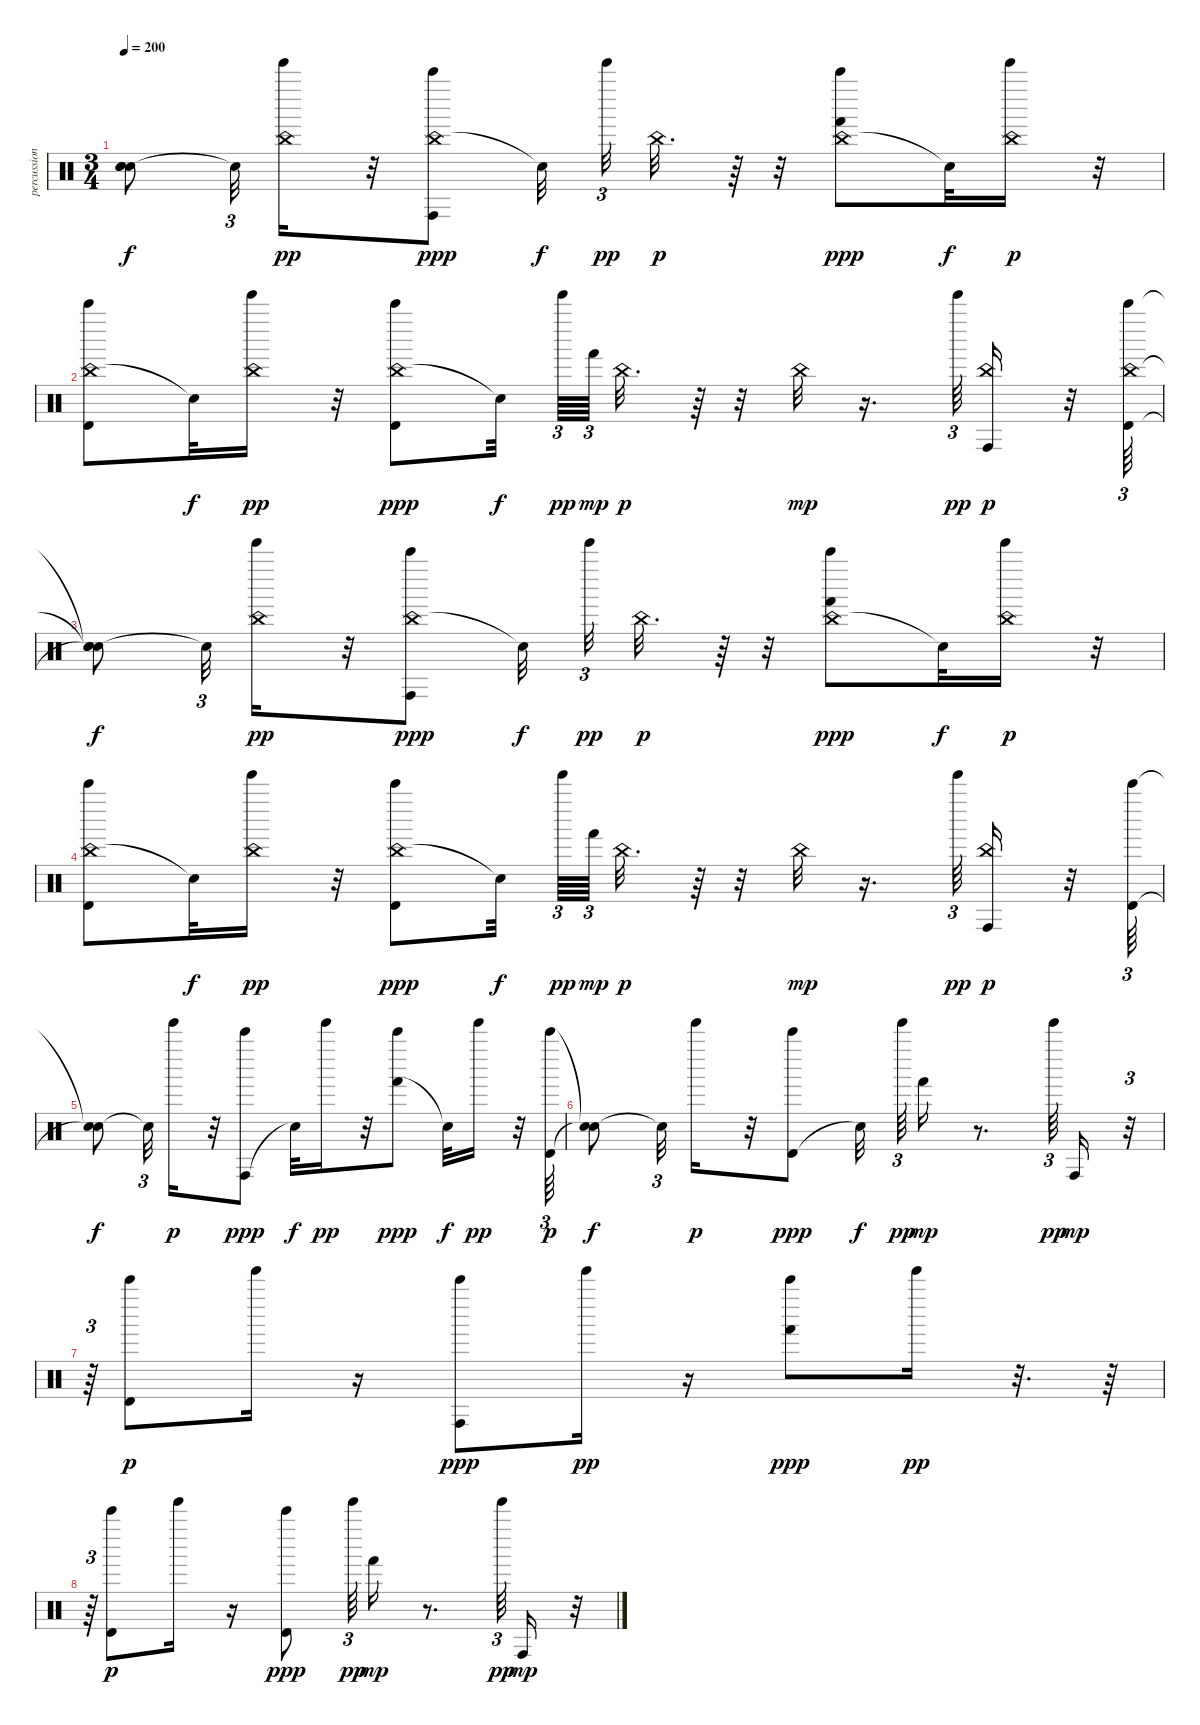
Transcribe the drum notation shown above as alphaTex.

\track ("percussion" "percussion") {instrument percussion}
\staff {score}
\articulation defaults
\ts (3 4)
\tempo 200
\clef neutral
\ks c
("Snare (hit)"{t} "Snare (hit)"{t} "Snare (hit)"{t}).8{dy f} "Snare (hit)"{t}.32{tu (3 2)} ("Tinkle Bell (hit)" "China (hit)").16{dy pp} r.32 ("China (hit)" "Conga high (hit)" "Bell Tree (hit)").8{dy ppp} "Snare (hit)"{t}.32{dy f} "Tinkle Bell (hit)".32{tu (3 2) dy pp} "China (hit)".32{d dy p} r.64 r.32 ("China (hit)" "Hand (hit)" "Bell Tree (hit)").8{dy ppp} "Snare (hit)"{t}.32{dy f} ("Tinkle Bell (hit)" "China (hit)").16{dy p} r.32 |
("China (hit)" "Timbale high (hit)" "Bell Tree (hit)").8 "Snare (hit)"{t}.32{dy f} ("Tinkle Bell (hit)" "China (hit)").16{dy pp} r.32 ("China (hit)" "Timbale high (hit)" "Bell Tree (hit)").8{dy ppp} "Snare (hit)"{t}.32{dy f} "Tinkle Bell (hit)".64{tu (3 2) dy pp} "Hand (hit)".64{tu (3 2) dy mp} "China (hit)".32{d dy p} r.64 r.32 "China (hit)".32{dy mp} r.16{d} "Tinkle Bell (hit)".64{tu (3 2) dy pp} ("Conga high (hit)" "China (hit)").16{dy p} r.32 ("China (hit)" "Timbale high (hit)" "Bell Tree (hit)").64{tu (3 2)} |
("Snare (hit)"{t} "Snare (hit)"{t} "Snare (hit)"{t}).8{dy f} "Snare (hit)"{t}.32{tu (3 2)} ("Tinkle Bell (hit)" "China (hit)").16{dy pp} r.32 ("China (hit)" "Conga high (hit)" "Bell Tree (hit)").8{dy ppp} "Snare (hit)"{t}.32{dy f} "Tinkle Bell (hit)".32{tu (3 2) dy pp} "China (hit)".32{d dy p} r.64 r.32 ("China (hit)" "Hand (hit)" "Bell Tree (hit)").8{dy ppp} "Snare (hit)"{t}.32{dy f} ("Tinkle Bell (hit)" "China (hit)").16{dy p} r.32 |
("China (hit)" "Timbale high (hit)" "Bell Tree (hit)").8 "Snare (hit)"{t}.32{dy f} ("Tinkle Bell (hit)" "China (hit)").16{dy pp} r.32 ("China (hit)" "Timbale high (hit)" "Bell Tree (hit)").8{dy ppp} "Snare (hit)"{t}.32{dy f} "Tinkle Bell (hit)".64{tu (3 2) dy pp} "Hand (hit)".64{tu (3 2) dy mp} "China (hit)".32{d dy p} r.64 r.32 "China (hit)".32{dy mp} r.16{d} "Tinkle Bell (hit)".64{tu (3 2) dy pp} ("Conga high (hit)" "China (hit)").16{dy p} r.32 ("Timbale high (hit)" "Bell Tree (hit)").64{tu (3 2)} |
("Snare (hit)"{t} "Snare (hit)"{t}).8{dy f} "Snare (hit)"{t}.32{tu (3 2)} "Tinkle Bell (hit)".16{dy p} r.32 ("Conga high (hit)" "Bell Tree (hit)").8{dy ppp} "Snare (hit)"{t}.32{dy f} "Tinkle Bell (hit)".16{dy pp} r.32 ("Hand (hit)" "Bell Tree (hit)").8{dy ppp} "Snare (hit)"{t}.32{dy f} "Tinkle Bell (hit)".16{dy pp} r.32 ("Timbale high (hit)" "Bell Tree (hit)").64{tu (3 2) dy p} |
("Snare (hit)"{t} "Snare (hit)"{t}).8{dy f} "Snare (hit)"{t}.32{tu (3 2)} "Tinkle Bell (hit)".16{dy p} r.32 ("Timbale high (hit)" "Bell Tree (hit)").8{dy ppp} "Snare (hit)"{t}.32{dy f} "Tinkle Bell (hit)".64{tu (3 2) dy pp} "Hand (hit)".16{dy mp} r.8{d} "Tinkle Bell (hit)".64{tu (3 2) dy pp} "Conga high (hit)".16{dy mp} r.32{tu (3 2)} |
r.64{tu (3 2)} ("Timbale high (hit)" "Bell Tree (hit)").8{dy p} "Tinkle Bell (hit)".16 r.16 ("Conga high (hit)" "Bell Tree (hit)").8{dy ppp} "Tinkle Bell (hit)".16{dy pp} r.16 ("Hand (hit)" "Bell Tree (hit)").8{dy ppp} "Tinkle Bell (hit)".16{dy pp} r.32{d} r.64 |
r.64{tu (3 2)} ("Timbale high (hit)" "Bell Tree (hit)").8{dy p} "Tinkle Bell (hit)".16 r.16 ("Timbale high (hit)" "Bell Tree (hit)").8{dy ppp} "Tinkle Bell (hit)".64{tu (3 2) dy pp} "Hand (hit)".16{dy mp} r.8{d} "Tinkle Bell (hit)".64{tu (3 2) dy pp} "Conga high (hit)".16{dy mp} r.32
